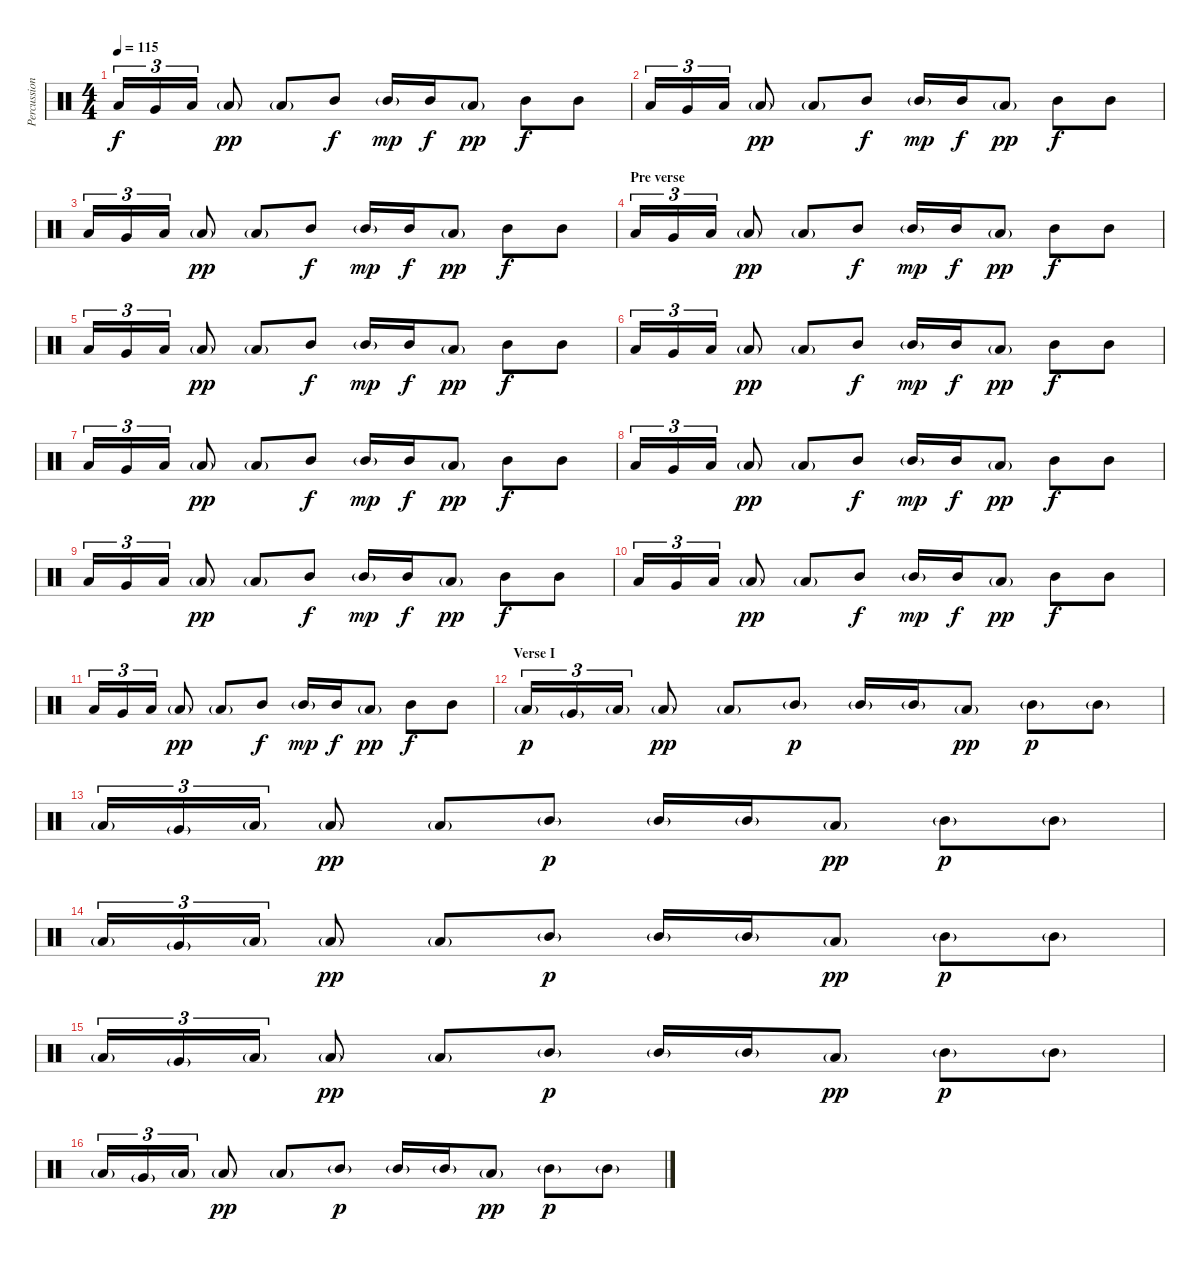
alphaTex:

\track ("Percussion - High Tom" "Percussion") {instrument percussion}
\staff {score}
\articulation defaults
\ts (4 4)
\tempo 115
\clef neutral
\ks c "Low Floor Tom (hit)".16{tu (3 2) dy f} "Very Low Tom (hit)".16{tu (3 2)} "Low Floor Tom (hit)".16{tu (3 2)} "Low Tom (hit)"{g}.8{dy pp} "Low Tom (hit)"{g}.8 "Mid Tom (hit)".8{dy f} "Mid Tom (hit)"{g}.16{dy mp} "Mid Tom (hit)".16{dy f} "Low Tom (hit)"{g}.8{dy pp} "Mid Tom (hit)".8{dy f} "Mid Tom (hit)".8
|
"Low Floor Tom (hit)".16{tu (3 2)} "Very Low Tom (hit)".16{tu (3 2)} "Low Floor Tom (hit)".16{tu (3 2)} "Low Tom (hit)"{g}.8{dy pp} "Low Tom (hit)"{g}.8 "Mid Tom (hit)".8{dy f} "Mid Tom (hit)"{g}.16{dy mp} "Mid Tom (hit)".16{dy f} "Low Tom (hit)"{g}.8{dy pp} "Mid Tom (hit)".8{dy f} "Mid Tom (hit)".8 |
"Low Floor Tom (hit)".16{tu (3 2)} "Very Low Tom (hit)".16{tu (3 2)} "Low Floor Tom (hit)".16{tu (3 2)} "Low Tom (hit)"{g}.8{dy pp} "Low Tom (hit)"{g}.8 "Mid Tom (hit)".8{dy f} "Mid Tom (hit)"{g}.16{dy mp} "Mid Tom (hit)".16{dy f} "Low Tom (hit)"{g}.8{dy pp} "Mid Tom (hit)".8{dy f} "Mid Tom (hit)".8 |
\section ("" "Pre verse")
"Low Floor Tom (hit)".16{tu (3 2)} "Very Low Tom (hit)".16{tu (3 2)} "Low Floor Tom (hit)".16{tu (3 2)} "Low Tom (hit)"{g}.8{dy pp} "Low Tom (hit)"{g}.8 "Mid Tom (hit)".8{dy f} "Mid Tom (hit)"{g}.16{dy mp} "Mid Tom (hit)".16{dy f} "Low Tom (hit)"{g}.8{dy pp} "Mid Tom (hit)".8{dy f} "Mid Tom (hit)".8 |
"Low Floor Tom (hit)".16{tu (3 2)} "Very Low Tom (hit)".16{tu (3 2)} "Low Floor Tom (hit)".16{tu (3 2)} "Low Tom (hit)"{g}.8{dy pp} "Low Tom (hit)"{g}.8 "Mid Tom (hit)".8{dy f} "Mid Tom (hit)"{g}.16{dy mp} "Mid Tom (hit)".16{dy f} "Low Tom (hit)"{g}.8{dy pp} "Mid Tom (hit)".8{dy f} "Mid Tom (hit)".8 |
"Low Floor Tom (hit)".16{tu (3 2)} "Very Low Tom (hit)".16{tu (3 2)} "Low Floor Tom (hit)".16{tu (3 2)} "Low Tom (hit)"{g}.8{dy pp} "Low Tom (hit)"{g}.8 "Mid Tom (hit)".8{dy f} "Mid Tom (hit)"{g}.16{dy mp} "Mid Tom (hit)".16{dy f} "Low Tom (hit)"{g}.8{dy pp} "Mid Tom (hit)".8{dy f} "Mid Tom (hit)".8 |
"Low Floor Tom (hit)".16{tu (3 2)} "Very Low Tom (hit)".16{tu (3 2)} "Low Floor Tom (hit)".16{tu (3 2)} "Low Tom (hit)"{g}.8{dy pp} "Low Tom (hit)"{g}.8 "Mid Tom (hit)".8{dy f} "Mid Tom (hit)"{g}.16{dy mp} "Mid Tom (hit)".16{dy f} "Low Tom (hit)"{g}.8{dy pp} "Mid Tom (hit)".8{dy f} "Mid Tom (hit)".8 |
"Low Floor Tom (hit)".16{tu (3 2)} "Very Low Tom (hit)".16{tu (3 2)} "Low Floor Tom (hit)".16{tu (3 2)} "Low Tom (hit)"{g}.8{dy pp} "Low Tom (hit)"{g}.8 "Mid Tom (hit)".8{dy f} "Mid Tom (hit)"{g}.16{dy mp} "Mid Tom (hit)".16{dy f} "Low Tom (hit)"{g}.8{dy pp} "Mid Tom (hit)".8{dy f} "Mid Tom (hit)".8 |
"Low Floor Tom (hit)".16{tu (3 2)} "Very Low Tom (hit)".16{tu (3 2)} "Low Floor Tom (hit)".16{tu (3 2)} "Low Tom (hit)"{g}.8{dy pp} "Low Tom (hit)"{g}.8 "Mid Tom (hit)".8{dy f} "Mid Tom (hit)"{g}.16{dy mp} "Mid Tom (hit)".16{dy f} "Low Tom (hit)"{g}.8{dy pp} "Mid Tom (hit)".8{dy f} "Mid Tom (hit)".8 |
"Low Floor Tom (hit)".16{tu (3 2)} "Very Low Tom (hit)".16{tu (3 2)} "Low Floor Tom (hit)".16{tu (3 2)} "Low Tom (hit)"{g}.8{dy pp} "Low Tom (hit)"{g}.8 "Mid Tom (hit)".8{dy f} "Mid Tom (hit)"{g}.16{dy mp} "Mid Tom (hit)".16{dy f} "Low Tom (hit)"{g}.8{dy pp} "Mid Tom (hit)".8{dy f} "Mid Tom (hit)".8 |
"Low Floor Tom (hit)".16{tu (3 2)} "Very Low Tom (hit)".16{tu (3 2)} "Low Floor Tom (hit)".16{tu (3 2)} "Low Tom (hit)"{g}.8{dy pp} "Low Tom (hit)"{g}.8 "Mid Tom (hit)".8{dy f} "Mid Tom (hit)"{g}.16{dy mp} "Mid Tom (hit)".16{dy f} "Low Tom (hit)"{g}.8{dy pp} "Mid Tom (hit)".8{dy f} "Mid Tom (hit)".8 |
\section ("" "Verse I")
"Low Floor Tom (hit)"{g}.16{tu (3 2) dy p} "Very Low Tom (hit)"{g}.16{tu (3 2)} "Low Floor Tom (hit)"{g}.16{tu (3 2)} "Low Tom (hit)"{g}.8{dy pp} "Low Tom (hit)"{g}.8 "Mid Tom (hit)"{g}.8{dy p} "Mid Tom (hit)"{g}.16 "Mid Tom (hit)"{g}.16 "Low Tom (hit)"{g}.8{dy pp} "Mid Tom (hit)"{g}.8{dy p} "Mid Tom (hit)"{g}.8 |
"Low Floor Tom (hit)"{g}.16{tu (3 2)} "Very Low Tom (hit)"{g}.16{tu (3 2)} "Low Floor Tom (hit)"{g}.16{tu (3 2)} "Low Tom (hit)"{g}.8{dy pp} "Low Tom (hit)"{g}.8 "Mid Tom (hit)"{g}.8{dy p} "Mid Tom (hit)"{g}.16 "Mid Tom (hit)"{g}.16 "Low Tom (hit)"{g}.8{dy pp} "Mid Tom (hit)"{g}.8{dy p} "Mid Tom (hit)"{g}.8 |
"Low Floor Tom (hit)"{g}.16{tu (3 2)} "Very Low Tom (hit)"{g}.16{tu (3 2)} "Low Floor Tom (hit)"{g}.16{tu (3 2)} "Low Tom (hit)"{g}.8{dy pp} "Low Tom (hit)"{g}.8 "Mid Tom (hit)"{g}.8{dy p} "Mid Tom (hit)"{g}.16 "Mid Tom (hit)"{g}.16 "Low Tom (hit)"{g}.8{dy pp} "Mid Tom (hit)"{g}.8{dy p} "Mid Tom (hit)"{g}.8 |
"Low Floor Tom (hit)"{g}.16{tu (3 2)} "Very Low Tom (hit)"{g}.16{tu (3 2)} "Low Floor Tom (hit)"{g}.16{tu (3 2)} "Low Tom (hit)"{g}.8{dy pp} "Low Tom (hit)"{g}.8 "Mid Tom (hit)"{g}.8{dy p} "Mid Tom (hit)"{g}.16 "Mid Tom (hit)"{g}.16 "Low Tom (hit)"{g}.8{dy pp} "Mid Tom (hit)"{g}.8{dy p} "Mid Tom (hit)"{g}.8 |
"Low Floor Tom (hit)"{g}.16{tu (3 2)} "Very Low Tom (hit)"{g}.16{tu (3 2)} "Low Floor Tom (hit)"{g}.16{tu (3 2)} "Low Tom (hit)"{g}.8{dy pp} "Low Tom (hit)"{g}.8 "Mid Tom (hit)"{g}.8{dy p} "Mid Tom (hit)"{g}.16 "Mid Tom (hit)"{g}.16 "Low Tom (hit)"{g}.8{dy pp} "Mid Tom (hit)"{g}.8{dy p} "Mid Tom (hit)"{g}.8
